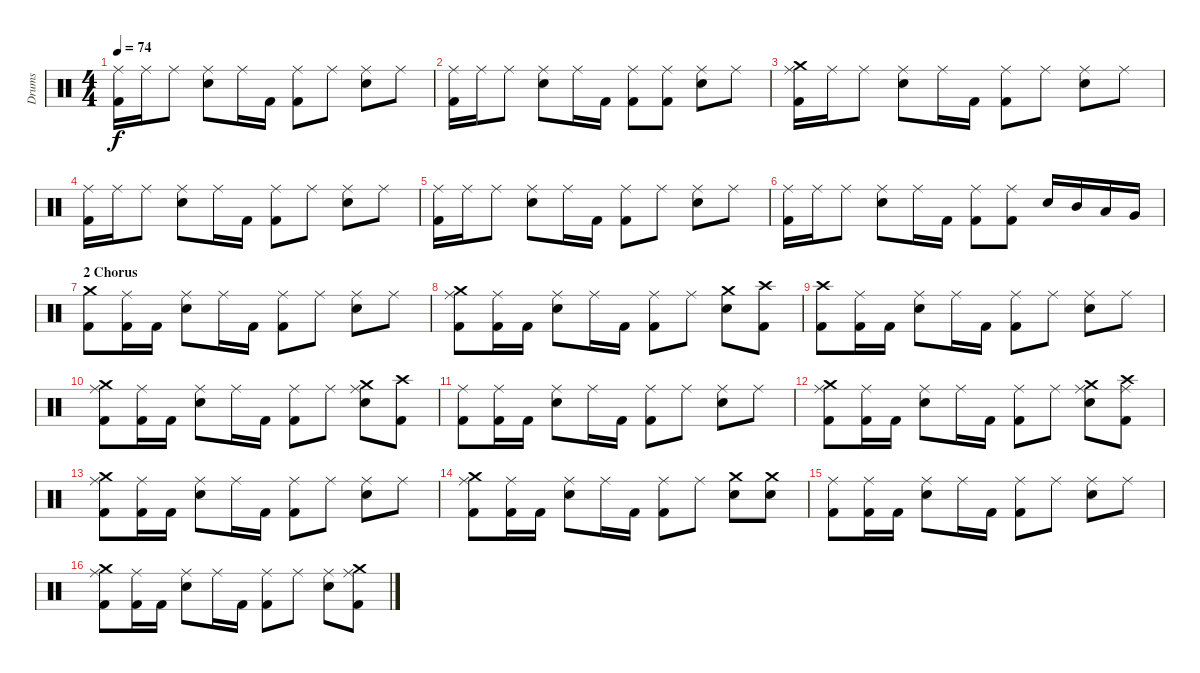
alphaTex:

\track ("Drums" "Drums") {instrument percussion}
\staff {score}
\articulation defaults
\ts (4 4)
\tempo 74
\clef neutral
\ks c
("Ride (middle)" "Kick (hit) 2").16{dy f} "Ride (middle)".16 "Ride (middle)".8 ("Ride (middle)" "Snare (hit) 2").8 "Ride (middle)".16 "Kick (hit) 2".16 ("Ride (middle)" "Kick (hit) 2").8 "Ride (middle)".8 ("Ride (middle)" "Snare (hit) 2").8 "Ride (middle)".8 |
("Ride (middle)" "Kick (hit) 2").16 "Ride (middle)".16 "Ride (middle)".8 ("Ride (middle)" "Snare (hit) 2").8 "Ride (middle)".16 "Kick (hit) 2".16 ("Ride (middle)" "Kick (hit) 2").8 ("Ride (middle)" "Kick (hit) 2").8 ("Ride (middle)" "Snare (hit) 2").8 "Ride (middle)".8 |
("Ride (middle)" "Crash medium (hit)" "Kick (hit) 2").16 "Ride (middle)".16 "Ride (middle)".8 ("Ride (middle)" "Snare (hit) 2").8 "Ride (middle)".16 "Kick (hit) 2".16 ("Ride (middle)" "Kick (hit) 2").8 "Ride (middle)".8 ("Ride (middle)" "Snare (hit) 2").8 "Ride (middle)".8 |
("Ride (middle)" "Kick (hit) 2").16 "Ride (middle)".16 "Ride (middle)".8 ("Ride (middle)" "Snare (hit) 2").8 "Ride (middle)".16 "Kick (hit) 2".16 ("Ride (middle)" "Kick (hit) 2").8 "Ride (middle)".8 ("Ride (middle)" "Snare (hit) 2").8 "Ride (middle)".8 |
("Ride (middle)" "Kick (hit) 2").16 "Ride (middle)".16 "Ride (middle)".8 ("Ride (middle)" "Snare (hit) 2").8 "Ride (middle)".16 "Kick (hit) 2".16 ("Ride (middle)" "Kick (hit) 2").8 "Ride (middle)".8 ("Ride (middle)" "Snare (hit) 2").8 "Ride (middle)".8 |
("Ride (middle)" "Kick (hit) 2").16 "Ride (middle)".16 "Ride (middle)".8 ("Ride (middle)" "Snare (hit) 2").8 "Ride (middle)".16 "Kick (hit) 2".16 ("Ride (middle)" "Kick (hit) 2").8 ("Ride (middle)" "Kick (hit) 2").8 "Snare (hit) 2".16 "Mid Tom (hit)".16 "Low Tom (hit)".16 "Very Low Tom (hit)".16 |
\section ("" "2 Chorus")
("Crash medium (hit)" "Kick (hit) 2").8 ("Ride (middle)" "Kick (hit) 2").16 "Kick (hit) 2".16 ("Ride (middle)" "Snare (hit) 2").8 "Ride (middle)".16 "Kick (hit) 2".16 ("Ride (middle)" "Kick (hit) 2").8 "Ride (middle)".8 ("Ride (middle)" "Snare (hit) 2").8 "Ride (middle)".8 |
("Ride (middle)" "Crash medium (hit)" "Kick (hit) 2").8 ("Ride (middle)" "Kick (hit) 2").16 "Kick (hit) 2".16 ("Ride (middle)" "Snare (hit) 2").8 "Ride (middle)".16 "Kick (hit) 2".16 ("Ride (middle)" "Kick (hit) 2").8 "Ride (middle)".8 ("Crash medium (hit)" "Snare (hit) 2").8 ("Crash high (hit)" "Kick (hit) 2").8 |
("Crash high (hit)" "Kick (hit) 2").8 ("Ride (middle)" "Kick (hit) 2").16 "Kick (hit) 2".16 ("Ride (middle)" "Snare (hit) 2").8 "Ride (middle)".16 "Kick (hit) 2".16 ("Ride (middle)" "Kick (hit) 2").8 "Ride (middle)".8 ("Ride (middle)" "Snare (hit) 2").8 "Ride (middle)".8 |
("Ride (middle)" "Crash medium (hit)" "Kick (hit) 2").8 ("Ride (middle)" "Kick (hit) 2").16 "Kick (hit) 2".16 ("Ride (middle)" "Snare (hit) 2").8 "Ride (middle)".16 "Kick (hit) 2".16 ("Ride (middle)" "Kick (hit) 2").8 "Ride (middle)".8 ("Ride (middle)" "Crash medium (hit)" "Snare (hit) 2").8 ("Crash high (hit)" "Kick (hit) 2").8 |
("Ride (middle)" "Kick (hit) 2").8 ("Ride (middle)" "Kick (hit) 2").16 "Kick (hit) 2".16 ("Ride (middle)" "Snare (hit) 2").8 "Ride (middle)".16 "Kick (hit) 2".16 ("Ride (middle)" "Kick (hit) 2").8 "Ride (middle)".8 ("Ride (middle)" "Snare (hit) 2").8 "Ride (middle)".8 |
("Ride (middle)" "Crash medium (hit)" "Kick (hit) 2").8 ("Ride (middle)" "Kick (hit) 2").16 "Kick (hit) 2".16 ("Ride (middle)" "Snare (hit) 2").8 "Ride (middle)".16 "Kick (hit) 2".16 ("Ride (middle)" "Kick (hit) 2").8 "Ride (middle)".8 ("Ride (middle)" "Crash medium (hit)" "Snare (hit) 2").8 ("Ride (middle)" "Crash high (hit)" "Kick (hit) 2").8 |
("Ride (middle)" "Crash medium (hit)" "Kick (hit) 2").8 ("Ride (middle)" "Kick (hit) 2").16 "Kick (hit) 2".16 ("Ride (middle)" "Snare (hit) 2").8 "Ride (middle)".16 "Kick (hit) 2".16 ("Ride (middle)" "Kick (hit) 2").8 "Ride (middle)".8 ("Ride (middle)" "Snare (hit) 2").8 "Ride (middle)".8 |
("Ride (middle)" "Crash medium (hit)" "Kick (hit) 2").8 ("Ride (middle)" "Kick (hit) 2").16 "Kick (hit) 2".16 ("Ride (middle)" "Snare (hit) 2").8 "Ride (middle)".16 "Kick (hit) 2".16 ("Ride (middle)" "Kick (hit) 2").8 "Ride (middle)".8 ("Crash medium (hit)" "Snare (hit) 2").8 ("Crash medium (hit)" "Snare (hit) 2").8 |
("Ride (middle)" "Kick (hit) 2").8 ("Ride (middle)" "Kick (hit) 2").16 "Kick (hit) 2".16 ("Ride (middle)" "Snare (hit) 2").8 "Ride (middle)".16 "Kick (hit) 2".16 ("Ride (middle)" "Kick (hit) 2").8 "Ride (middle)".8 ("Ride (middle)" "Snare (hit) 2").8 "Ride (middle)".8 |
("Ride (middle)" "Crash medium (hit)" "Kick (hit) 2").8 ("Ride (middle)" "Kick (hit) 2").16 "Kick (hit) 2".16 ("Ride (middle)" "Snare (hit) 2").8 "Ride (middle)".16 "Kick (hit) 2".16 ("Ride (middle)" "Kick (hit) 2").8 "Ride (middle)".8 ("Ride (middle)" "Snare (hit) 2").8 ("Ride (middle)" "Crash medium (hit)" "Kick (hit) 2").8
